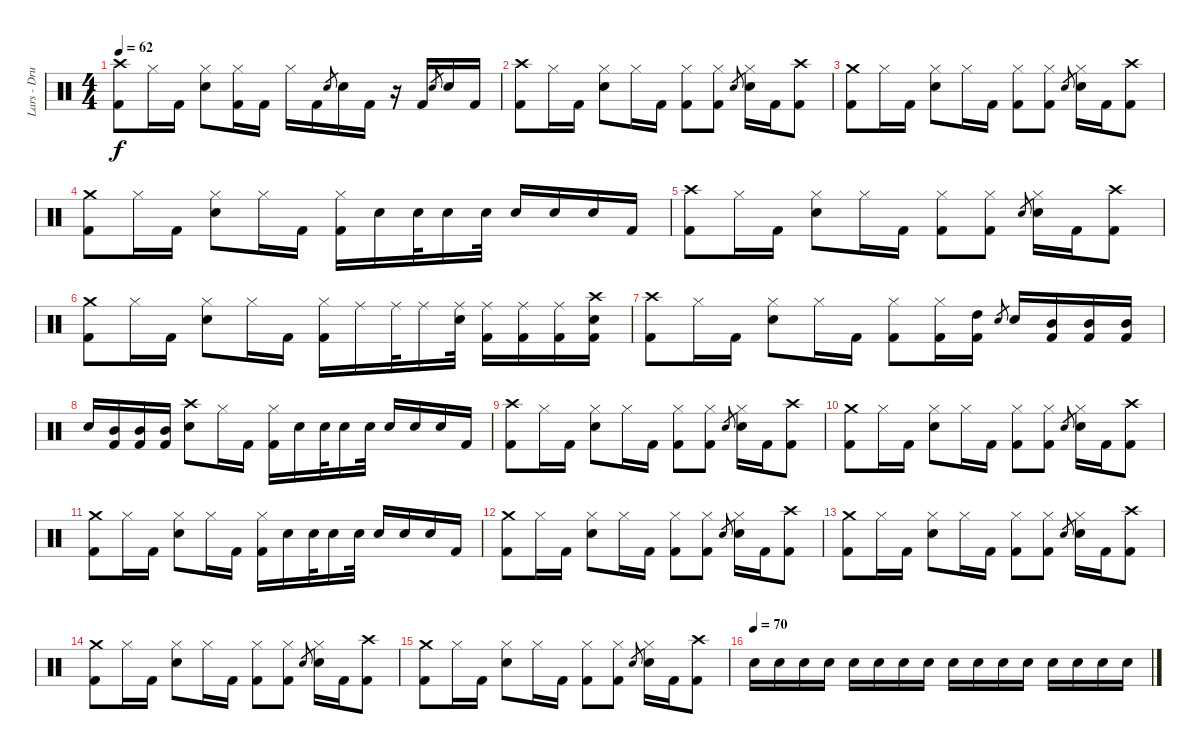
\track ("Lars - Drums" "Lars - Dru") {instrument percussion}
\staff {score}
\articulation defaults
\ts (4 4)
\tempo 62
\clef neutral
\ks c
("Crash high (hit)" "Kick (hit) 2").8{dy f} "Hi-Hat (closed)".16 "Kick (hit) 2".16 ("Hi-Hat (closed)" "Electric Snare (hit)").8 ("Hi-Hat (closed)" "Kick (hit) 2").16 "Kick (hit) 2".16 "Hi-Hat (closed)".16 "Kick (hit) 2".16 "Electric Snare (hit)"{sl}.8{gr} "Electric Snare (hit)".16 "Kick (hit) 2".16 r.16 "Kick (hit) 2".16 "Electric Snare (hit)"{sl}.8{gr} "Electric Snare (hit)".16 "Kick (hit) 2".16 |
("Crash high (hit)" "Kick (hit) 2").8 "Hi-Hat (closed)".16 "Kick (hit) 2".16 ("Hi-Hat (closed)" "Electric Snare (hit)").8 "Hi-Hat (closed)".16 "Kick (hit) 2".16 ("Hi-Hat (closed)" "Kick (hit) 2").8 ("Hi-Hat (closed)" "Kick (hit) 2").8 "Electric Snare (hit)"{sl}.8{gr} ("Hi-Hat (closed)" "Electric Snare (hit)").16 "Kick (hit) 2".16 ("Crash high (hit)" "Kick (hit) 2").8 |
("Crash medium (hit)" "Kick (hit) 2").8 "Hi-Hat (closed)".16 "Kick (hit) 2".16 ("Hi-Hat (closed)" "Electric Snare (hit)").8 "Hi-Hat (closed)".16 "Kick (hit) 2".16 ("Hi-Hat (closed)" "Kick (hit) 2").8 ("Hi-Hat (closed)" "Kick (hit) 2").8 "Electric Snare (hit)".8{gr} ("Hi-Hat (closed)" "Electric Snare (hit)").16 "Kick (hit) 2".16 ("Crash high (hit)" "Kick (hit) 2").8 |
("Crash medium (hit)" "Kick (hit) 2").8 "Hi-Hat (closed)".16 "Kick (hit) 2".16 ("Hi-Hat (closed)" "Electric Snare (hit)").8 "Hi-Hat (closed)".16 "Kick (hit) 2".16 ("Hi-Hat (closed)" "Kick (hit) 2").16 "Electric Snare (hit)".16 "Electric Snare (hit)".32 "Electric Snare (hit)".16 "Electric Snare (hit)".32 "Electric Snare (hit)".16 "Electric Snare (hit)".16 "Electric Snare (hit)".16 "Kick (hit) 2".16 |
("Crash high (hit)" "Kick (hit) 2").8 "Hi-Hat (closed)".16 "Kick (hit) 2".16 ("Hi-Hat (closed)" "Electric Snare (hit)").8 "Hi-Hat (closed)".16 "Kick (hit) 2".16 ("Hi-Hat (closed)" "Kick (hit) 2").8 ("Hi-Hat (closed)" "Kick (hit) 2").8 "Electric Snare (hit)".8{gr} ("Hi-Hat (closed)" "Electric Snare (hit)").16 "Kick (hit) 2".16 ("Crash high (hit)" "Kick (hit) 2").8 |
("Crash medium (hit)" "Kick (hit) 2").8 "Hi-Hat (closed)".16 "Kick (hit) 2".16 ("Hi-Hat (closed)" "Electric Snare (hit)").8 "Hi-Hat (closed)".16 "Kick (hit) 2".16 ("Hi-Hat (closed)" "Kick (hit) 2").16 "Ride (middle)".16 "Ride (middle)".32 "Ride (middle)".16 ("Ride (middle)" "Electric Snare (hit)").32 ("Ride (middle)" "Kick (hit) 2").16 ("Ride (middle)" "Kick (hit) 2").16 ("Ride (middle)" "Kick (hit) 2").16 ("Crash high (hit)" "Electric Snare (hit)" "Kick (hit) 2").16 |
("Crash high (hit)" "Kick (hit) 2").8 "Hi-Hat (closed)".16 "Kick (hit) 2".16 ("Hi-Hat (closed)" "Electric Snare (hit)").8 "Hi-Hat (closed)".16 "Kick (hit) 2".16 ("Hi-Hat (closed)" "Kick (hit) 2").8 ("Hi-Hat (closed)" "Kick (hit) 2").16 ("High Tom (hit)" "Kick (hit) 2").16 "Electric Snare (hit)".8{gr} "Electric Snare (hit)".16 ("Mid Tom (hit)" "Kick (hit) 2").16 ("Mid Tom (hit)" "Kick (hit) 2").16 ("Mid Tom (hit)" "Kick (hit) 2").16 |
"Electric Snare (hit)".16 ("Mid Tom (hit)" "Kick (hit) 2").16 ("Mid Tom (hit)" "Kick (hit) 2").16 ("Mid Tom (hit)" "Kick (hit) 2").16 ("Crash high (hit)" "Electric Snare (hit)").8 "Hi-Hat (closed)".16 "Kick (hit) 2".16 ("Hi-Hat (closed)" "Kick (hit) 2").16 "Electric Snare (hit)".16 "Electric Snare (hit)".32 "Electric Snare (hit)".16 "Electric Snare (hit)".32 "Electric Snare (hit)".16 "Electric Snare (hit)".16 "Electric Snare (hit)".16 "Kick (hit) 2".16 |
("Crash high (hit)" "Kick (hit) 2").8 "Hi-Hat (closed)".16 "Kick (hit) 2".16 ("Hi-Hat (closed)" "Electric Snare (hit)").8 "Hi-Hat (closed)".16 "Kick (hit) 2".16 ("Hi-Hat (closed)" "Kick (hit) 2").8 ("Hi-Hat (closed)" "Kick (hit) 2").8 "Electric Snare (hit)"{sl}.8{gr} ("Hi-Hat (closed)" "Electric Snare (hit)").16 "Kick (hit) 2".16 ("Crash high (hit)" "Kick (hit) 2").8 |
("Crash medium (hit)" "Kick (hit) 2").8 "Hi-Hat (closed)".16 "Kick (hit) 2".16 ("Hi-Hat (closed)" "Electric Snare (hit)").8 "Hi-Hat (closed)".16 "Kick (hit) 2".16 ("Hi-Hat (closed)" "Kick (hit) 2").8 ("Hi-Hat (closed)" "Kick (hit) 2").8 "Electric Snare (hit)".8{gr} ("Hi-Hat (closed)" "Electric Snare (hit)").16 "Kick (hit) 2".16 ("Crash high (hit)" "Kick (hit) 2").8 |
("Crash medium (hit)" "Kick (hit) 2").8 "Hi-Hat (closed)".16 "Kick (hit) 2".16 ("Hi-Hat (closed)" "Electric Snare (hit)").8 "Hi-Hat (closed)".16 "Kick (hit) 2".16 ("Hi-Hat (closed)" "Kick (hit) 2").16 "Electric Snare (hit)".16 "Electric Snare (hit)".32 "Electric Snare (hit)".16 "Electric Snare (hit)".32 "Electric Snare (hit)".16 "Electric Snare (hit)".16 "Electric Snare (hit)".16 "Kick (hit) 2".16 |
("Crash medium (hit)" "Kick (hit) 2").8 "Hi-Hat (closed)".16 "Kick (hit) 2".16 ("Hi-Hat (closed)" "Electric Snare (hit)").8 "Hi-Hat (closed)".16 "Kick (hit) 2".16 ("Hi-Hat (closed)" "Kick (hit) 2").8 ("Hi-Hat (closed)" "Kick (hit) 2").8 "Electric Snare (hit)".8{gr} ("Hi-Hat (closed)" "Electric Snare (hit)").16 "Kick (hit) 2".16 ("Crash high (hit)" "Kick (hit) 2").8 |
("Crash medium (hit)" "Kick (hit) 2").8 "Hi-Hat (closed)".16 "Kick (hit) 2".16 ("Hi-Hat (closed)" "Electric Snare (hit)").8 "Hi-Hat (closed)".16 "Kick (hit) 2".16 ("Hi-Hat (closed)" "Kick (hit) 2").8 ("Hi-Hat (closed)" "Kick (hit) 2").8 "Electric Snare (hit)".8{gr} ("Hi-Hat (closed)" "Electric Snare (hit)").16 "Kick (hit) 2".16 ("Crash high (hit)" "Kick (hit) 2").8 |
("Crash medium (hit)" "Kick (hit) 2").8 "Hi-Hat (closed)".16 "Kick (hit) 2".16 ("Hi-Hat (closed)" "Electric Snare (hit)").8 "Hi-Hat (closed)".16 "Kick (hit) 2".16 ("Hi-Hat (closed)" "Kick (hit) 2").8 ("Hi-Hat (closed)" "Kick (hit) 2").8 "Electric Snare (hit)".8{gr} ("Hi-Hat (closed)" "Electric Snare (hit)").16 "Kick (hit) 2".16 ("Crash high (hit)" "Kick (hit) 2").8 |
("Crash medium (hit)" "Kick (hit) 2").8 "Hi-Hat (closed)".16 "Kick (hit) 2".16 ("Hi-Hat (closed)" "Electric Snare (hit)").8 "Hi-Hat (closed)".16 "Kick (hit) 2".16 ("Hi-Hat (closed)" "Kick (hit) 2").8 ("Hi-Hat (closed)" "Kick (hit) 2").8 "Electric Snare (hit)".8{gr} ("Hi-Hat (closed)" "Electric Snare (hit)").16 "Kick (hit) 2".16 ("Crash high (hit)" "Kick (hit) 2").8 |
\tempo (70)
"Electric Snare (hit)".16 "Electric Snare (hit)".16 "Electric Snare (hit)".16 "Electric Snare (hit)".16 "Electric Snare (hit)".16 "Electric Snare (hit)".16 "Electric Snare (hit)".16 "Electric Snare (hit)".16 "Electric Snare (hit)".16 "Electric Snare (hit)".16 "Electric Snare (hit)".16 "Electric Snare (hit)".16 "Electric Snare (hit)".16 "Electric Snare (hit)".16 "Electric Snare (hit)".16 "Electric Snare (hit)".16
